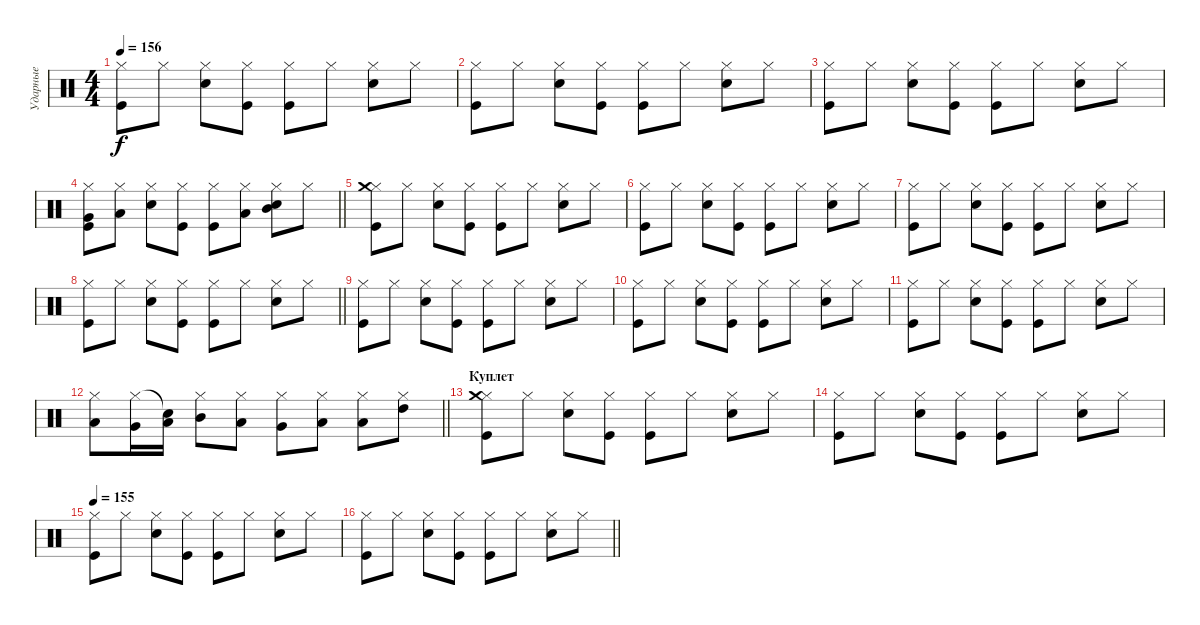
\track ("Ударные" "Ударные") {instrument percussion}
\staff {score}
\articulation defaults
\ts (4 4)
\tempo 156
\clef neutral
\ks c
("Hi-Hat (closed)" "Kick (hit)").8{dy f} "Hi-Hat (closed)".8 ("Hi-Hat (closed)" "Snare (hit) 2").8 ("Hi-Hat (closed)" "Kick (hit)").8 ("Hi-Hat (closed)" "Kick (hit)").8 "Hi-Hat (closed)".8 ("Hi-Hat (closed)" "Snare (hit) 2").8 "Hi-Hat (closed)".8 |
("Hi-Hat (closed)" "Kick (hit)").8 "Hi-Hat (closed)".8 ("Hi-Hat (closed)" "Snare (hit) 2").8 ("Hi-Hat (closed)" "Kick (hit)").8 ("Hi-Hat (closed)" "Kick (hit)").8 "Hi-Hat (closed)".8 ("Hi-Hat (closed)" "Snare (hit) 2").8 "Hi-Hat (closed)".8 |
("Hi-Hat (closed)" "Kick (hit)").8 "Hi-Hat (closed)".8 ("Hi-Hat (closed)" "Snare (hit) 2").8 ("Hi-Hat (closed)" "Kick (hit)").8 ("Hi-Hat (closed)" "Kick (hit)").8 "Hi-Hat (closed)".8 ("Hi-Hat (closed)" "Snare (hit) 2").8 "Hi-Hat (closed)".8 |
\barLineRight lightlight
("Hi-Hat (closed)" "Kick (hit)" "Very Low Tom (hit)").8 ("Hi-Hat (closed)" "Low Tom (hit)").8 ("Hi-Hat (closed)" "Snare (hit) 2").8 ("Hi-Hat (closed)" "Kick (hit)").8 ("Hi-Hat (closed)" "Kick (hit)").8 ("Hi-Hat (closed)" "Low Tom (hit)").8 ("Hi-Hat (closed)" "Snare (hit) 2" "Mid Tom (hit)").8 "Hi-Hat (closed)".8 |
("Hi-Hat (closed)" "Kick (hit)" "Crash medium (hit)").8 "Hi-Hat (closed)".8 ("Hi-Hat (closed)" "Snare (hit) 2").8 ("Hi-Hat (closed)" "Kick (hit)").8 ("Hi-Hat (closed)" "Kick (hit)").8 "Hi-Hat (closed)".8 ("Hi-Hat (closed)" "Snare (hit) 2").8 "Hi-Hat (closed)".8 |
("Hi-Hat (closed)" "Kick (hit)").8 "Hi-Hat (closed)".8 ("Hi-Hat (closed)" "Snare (hit) 2").8 ("Hi-Hat (closed)" "Kick (hit)").8 ("Hi-Hat (closed)" "Kick (hit)").8 "Hi-Hat (closed)".8 ("Hi-Hat (closed)" "Snare (hit) 2").8 "Hi-Hat (closed)".8 |
("Hi-Hat (closed)" "Kick (hit)").8 "Hi-Hat (closed)".8 ("Hi-Hat (closed)" "Snare (hit) 2").8 ("Hi-Hat (closed)" "Kick (hit)").8 ("Hi-Hat (closed)" "Kick (hit)").8 "Hi-Hat (closed)".8 ("Hi-Hat (closed)" "Snare (hit) 2").8 "Hi-Hat (closed)".8 |
\barLineRight lightlight
("Hi-Hat (closed)" "Kick (hit)").8 "Hi-Hat (closed)".8 ("Hi-Hat (closed)" "Snare (hit) 2").8 ("Hi-Hat (closed)" "Kick (hit)").8 ("Hi-Hat (closed)" "Kick (hit)").8 "Hi-Hat (closed)".8 ("Hi-Hat (closed)" "Snare (hit) 2").8 "Hi-Hat (closed)".8 |
("Hi-Hat (closed)" "Kick (hit)").8 "Hi-Hat (closed)".8 ("Hi-Hat (closed)" "Snare (hit) 2").8 ("Hi-Hat (closed)" "Kick (hit)").8 ("Hi-Hat (closed)" "Kick (hit)").8 "Hi-Hat (closed)".8 ("Hi-Hat (closed)" "Snare (hit) 2").8 "Hi-Hat (closed)".8 |
("Hi-Hat (closed)" "Kick (hit)").8 "Hi-Hat (closed)".8 ("Hi-Hat (closed)" "Snare (hit) 2").8 ("Hi-Hat (closed)" "Kick (hit)").8 ("Hi-Hat (closed)" "Kick (hit)").8 "Hi-Hat (closed)".8 ("Hi-Hat (closed)" "Snare (hit) 2").8 "Hi-Hat (closed)".8 |
("Hi-Hat (closed)" "Kick (hit)").8 "Hi-Hat (closed)".8 ("Hi-Hat (closed)" "Snare (hit) 2").8 ("Hi-Hat (closed)" "Kick (hit)").8 ("Hi-Hat (closed)" "Kick (hit)").8 "Hi-Hat (closed)".8 ("Hi-Hat (closed)" "Snare (hit) 2").8 "Hi-Hat (closed)".8 |
\barLineRight lightlight
("Hi-Hat (closed)" "Low Tom (hit)").8 ("Hi-Hat (closed)" "Very Low Tom (hit)").16 ("Snare (hit)"{t} "Low Tom (hit)").16 ("Hi-Hat (closed)" "Mid Tom (hit)").8 ("Hi-Hat (closed)" "Low Tom (hit)").8 ("Hi-Hat (closed)" "Very Low Tom (hit)").8 ("Hi-Hat (closed)" "Low Floor Tom (hit)").8 ("Hi-Hat (closed)" "Low Tom (hit)").8 ("Hi-Hat (closed)" "High Tom (hit)").8 |
\section ("" "Куплет")
("Hi-Hat (closed)" "Kick (hit)" "Crash medium (hit)").8 "Hi-Hat (closed)".8 ("Hi-Hat (closed)" "Snare (hit) 2").8 ("Hi-Hat (closed)" "Kick (hit)").8 ("Hi-Hat (closed)" "Kick (hit)").8 "Hi-Hat (closed)".8 ("Hi-Hat (closed)" "Snare (hit) 2").8 "Hi-Hat (closed)".8 |
("Hi-Hat (closed)" "Kick (hit)").8 "Hi-Hat (closed)".8 ("Hi-Hat (closed)" "Snare (hit) 2").8 ("Hi-Hat (closed)" "Kick (hit)").8 ("Hi-Hat (closed)" "Kick (hit)").8 "Hi-Hat (closed)".8 ("Hi-Hat (closed)" "Snare (hit) 2").8 "Hi-Hat (closed)".8 |
\tempo 155
("Hi-Hat (closed)" "Kick (hit)").8 "Hi-Hat (closed)".8 ("Hi-Hat (closed)" "Snare (hit) 2").8 ("Hi-Hat (closed)" "Kick (hit)").8 ("Hi-Hat (closed)" "Kick (hit)").8 "Hi-Hat (closed)".8 ("Hi-Hat (closed)" "Snare (hit) 2").8 "Hi-Hat (closed)".8 |
\barLineRight lightlight
("Hi-Hat (closed)" "Kick (hit)").8 "Hi-Hat (closed)".8 ("Hi-Hat (closed)" "Snare (hit) 2").8 ("Hi-Hat (closed)" "Kick (hit)").8 ("Hi-Hat (closed)" "Kick (hit)").8 "Hi-Hat (closed)".8 ("Hi-Hat (closed)" "Snare (hit) 2").8 "Hi-Hat (closed)".8
